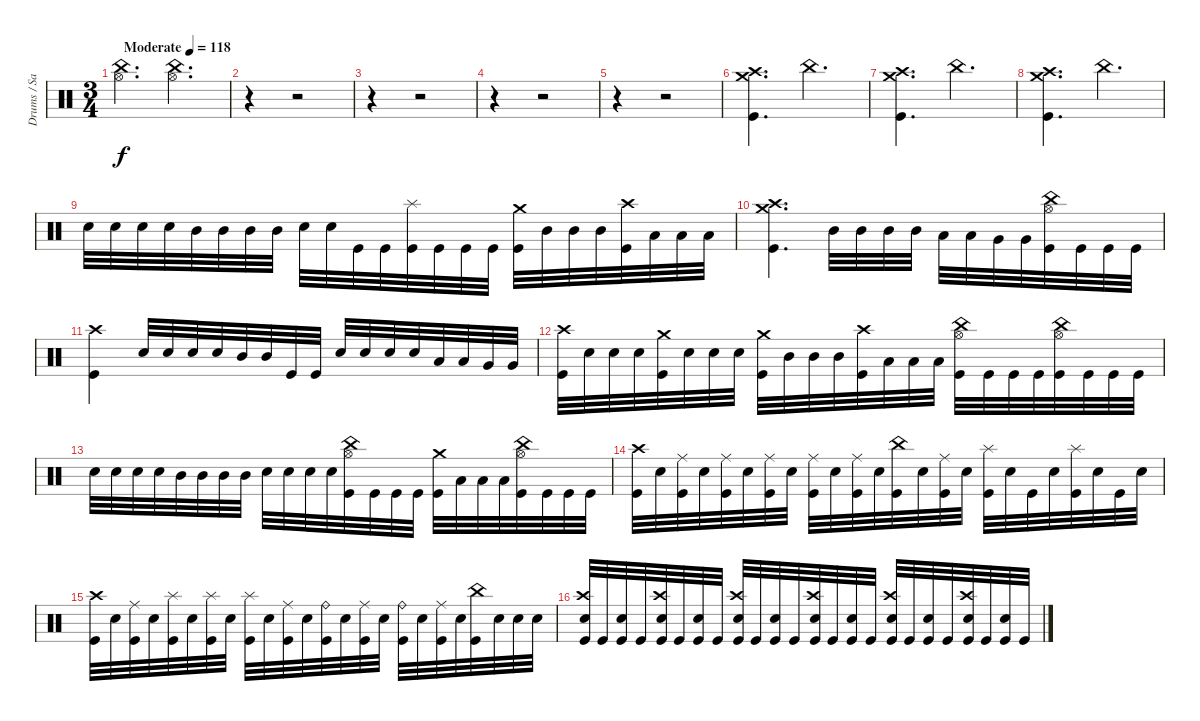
\track ("Drums / Sasha" "Drums / Sa") {instrument percussion}
\staff {score}
\articulation defaults
\ts (3 4)
\tempo (118 "Moderate")
\clef neutral
\ks c
("Hi-Hat (open)" "China (hit)").4{d dy f} ("Hi-Hat (open)" "China (hit)").4{d} |
r.4 r.2 |
r.4 r.2 |
r.4 r.2 |
r.4 r.2 |
("Kick (hit)" "Crash medium (hit)" "Crash high (hit)").4{d} "China (hit)".4{d} |
("Kick (hit)" "Crash medium (hit)" "Crash high (hit)").4{d} "China (hit)".4{d} |
("Kick (hit)" "Crash medium (hit)" "Crash high (hit)").4{d} "China (hit)".4{d} |
"Snare (hit) 2".32 "Snare (hit) 2".32 "Snare (hit) 2".32 "Snare (hit) 2".32 "Mid Tom (hit)".32 "Mid Tom (hit)".32 "Mid Tom (hit)".32 "Mid Tom (hit)".32 "Snare (hit) 2".32 "Snare (hit) 2".32 "Kick (hit)".32 "Kick (hit)".32 ("Splash (hit)" "Kick (hit)").32 "Kick (hit)".32 "Kick (hit)".32 "Kick (hit)".32 ("Crash medium (hit)" "Kick (hit)").32 "Mid Tom (hit)".32 "Mid Tom (hit)".32 "Mid Tom (hit)".32 ("Crash high (hit)" "Kick (hit)").32 "Low Tom (hit)".32 "Low Tom (hit)".32 "Low Tom (hit)".32 |
("Kick (hit)" "Crash medium (hit)" "Crash high (hit)").4{d} "Mid Tom (hit)".32 "Mid Tom (hit)".32 "Mid Tom (hit)".32 "Mid Tom (hit)".32 "Low Tom (hit)".32 "Low Tom (hit)".32 "Very Low Tom (hit)".32 "Very Low Tom (hit)".32 ("China (hit)" "Hi-Hat (open)" "Kick (hit)").32 "Kick (hit)".32 "Kick (hit)".32 "Kick (hit)".32 |
("Kick (hit)" "Crash high (hit)").4 "Snare (hit) 2".32 "Snare (hit) 2".32 "Snare (hit) 2".32 "Snare (hit) 2".32 "Mid Tom (hit)".32 "Mid Tom (hit)".32 "Kick (hit)".32 "Kick (hit)".32 "Snare (hit) 2".32 "Snare (hit) 2".32 "Snare (hit) 2".32 "Snare (hit) 2".32 "Low Tom (hit)".32 "Low Tom (hit)".32 "Very Low Tom (hit)".32 "Very Low Tom (hit)".32 |
("Crash high (hit)" "Kick (hit)").32 "Snare (hit) 2".32 "Snare (hit) 2".32 "Snare (hit) 2".32 ("Crash medium (hit)" "Kick (hit)").32 "Snare (hit) 2".32 "Snare (hit) 2".32 "Snare (hit) 2".32 ("Crash medium (hit)" "Kick (hit)").32 "Mid Tom (hit)".32 "Mid Tom (hit)".32 "Mid Tom (hit)".32 ("Crash high (hit)" "Kick (hit)").32 "Low Tom (hit)".32 "Low Tom (hit)".32 "Low Tom (hit)".32 ("China (hit)" "Hi-Hat (open)" "Kick (hit)").32 "Kick (hit)".32 "Kick (hit)".32 "Kick (hit)".32 ("China (hit)" "Hi-Hat (open)" "Kick (hit)").32 "Kick (hit)".32 "Kick (hit)".32 "Kick (hit)".32 |
"Snare (hit) 2".32 "Snare (hit) 2".32 "Snare (hit) 2".32 "Snare (hit) 2".32 "Mid Tom (hit)".32 "Mid Tom (hit)".32 "Mid Tom (hit)".32 "Mid Tom (hit)".32 "Snare (hit) 2".32 "Snare (hit) 2".32 "Snare (hit) 2".32 "Snare (hit) 2".32 ("China (hit)" "Hi-Hat (open)" "Kick (hit)").32 "Kick (hit)".32 "Kick (hit)".32 "Kick (hit)".32 ("Crash medium (hit)" "Kick (hit)").32 "Low Tom (hit)".32 "Low Tom (hit)".32 "Low Tom (hit)".32 ("China (hit)" "Hi-Hat (open)" "Kick (hit)").32 "Kick (hit)".32 "Kick (hit)".32 "Kick (hit)".32 |
("Crash high (hit)" "Kick (hit)").32 "Snare (hit) 2".32 ("Ride (middle)" "Kick (hit)").32 "Snare (hit) 2".32 ("Ride (middle)" "Kick (hit)").32 "Snare (hit) 2".32 ("Ride (middle)" "Kick (hit)").32 "Snare (hit) 2".32 ("Ride (middle)" "Kick (hit)").32 "Snare (hit) 2".32 ("Ride (middle)" "Kick (hit)").32 "Snare (hit) 2".32 ("China (hit)" "Kick (hit)").32 "Snare (hit) 2".32 ("Ride (middle)" "Kick (hit)").32 "Snare (hit) 2".32 ("Splash (hit)" "Kick (hit)").32 "Snare (hit) 2".32 "Kick (hit)".32 "Snare (hit) 2".32 ("Splash (hit)" "Kick (hit)").32 "Snare (hit) 2".32 "Kick (hit)".32 "Snare (hit) 2".32 |
("Crash high (hit)" "Kick (hit)").32 "Snare (hit) 2".32 ("Ride (middle)" "Kick (hit)").32 "Snare (hit) 2".32 ("Splash (hit)" "Kick (hit)").32 "Snare (hit) 2".32 ("Splash (hit)" "Kick (hit)").32 "Snare (hit) 2".32 ("Splash (hit)" "Kick (hit)").32 "Snare (hit) 2".32 ("Ride (middle)" "Kick (hit)").32 "Snare (hit) 2".32 ("Ride (bell)" "Kick (hit)").32 "Snare (hit) 2".32 ("Ride (middle)" "Kick (hit)").32 "Snare (hit) 2".32 ("Ride (bell)" "Kick (hit)").32 "Snare (hit) 2".32 ("Ride (middle)" "Kick (hit)").32 "Snare (hit) 2".32 ("China (hit)" "Kick (hit)").32 "Snare (hit) 2".32 "Snare (hit) 2".32 "Snare (hit) 2".32 |
("Crash high (hit)" "Snare (hit) 2" "Kick (hit)").32 "Kick (hit)".32 ("Snare (hit) 2" "Kick (hit)").32 "Kick (hit)".32 ("Crash high (hit)" "Snare (hit) 2" "Kick (hit)").32 "Kick (hit)".32 ("Snare (hit) 2" "Kick (hit)").32 "Kick (hit)".32 ("Crash high (hit)" "Snare (hit) 2" "Kick (hit)").32 "Kick (hit)".32 ("Snare (hit) 2" "Kick (hit)").32 "Kick (hit)".32 ("Crash high (hit)" "Snare (hit) 2" "Kick (hit)").32 "Kick (hit)".32 ("Snare (hit) 2" "Kick (hit)").32 "Kick (hit)".32 ("Crash high (hit)" "Snare (hit) 2" "Kick (hit)").32 "Kick (hit)".32 ("Snare (hit) 2" "Kick (hit)").32 "Kick (hit)".32 ("Crash high (hit)" "Snare (hit) 2" "Kick (hit)").32 "Kick (hit)".32 ("Snare (hit) 2" "Kick (hit)").32 "Kick (hit)".32
